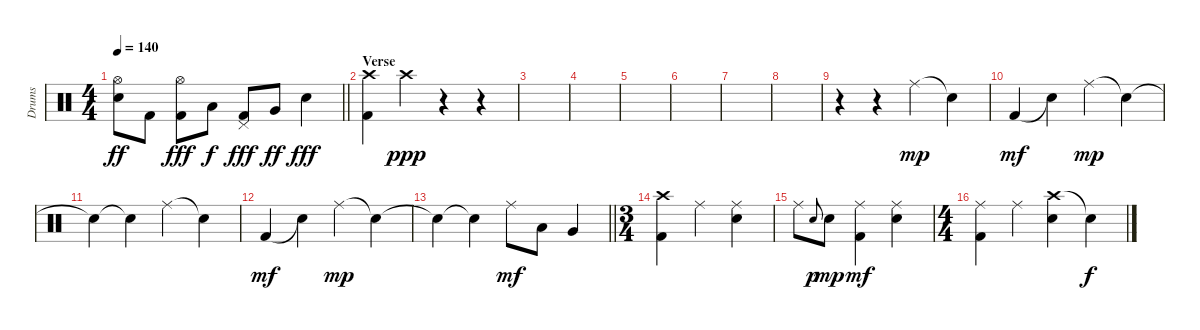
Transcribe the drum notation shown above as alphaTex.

\track ("Drums" "Drums") {instrument percussion}
\staff {score}
\articulation defaults
\ts (4 4)
\tempo 140
\clef neutral
\barLineRight lightlight
\ks c
("Hi-Hat (open)" "Snare (hit) 2").8{dy ff} "Kick (hit) 2".8 ("Hi-Hat (open)" "Kick (hit) 2").8{dy fff} "Low Tom (hit)".8{dy f} ("Pedal Hi-Hat (hit)" "Kick (hit) 2").8{dy fff} "Very Low Tom (hit)".8{dy ff} "Snare (hit) 2".4{dy fff} |
\section ("" "Verse")
("Crash high (hit)" "Kick (hit) 2").4 "Crash high (hit)".4{dy ppp} r.4 r.4 |
|
|
|
|
|
|
r.4 r.4 "Ride (middle)".4{dy mp} "Snare (hit)"{t}.4 |
"Kick (hit) 2".4{dy mf} "Snare (hit)"{t}.4 "Ride (middle)".4{dy mp} "Snare (hit)"{t}.4 |
"Snare (hit)"{t}.4 "Snare (hit)"{t}.4 "Ride (middle)".4 "Snare (hit)"{t}.4 |
"Kick (hit) 2".4{dy mf} "Snare (hit)"{t}.4 "Ride (middle)".4{dy mp} "Snare (hit)"{t}.4 |
\barLineRight lightlight "Snare (hit)"{t}.4 "Snare (hit)"{t}.4 "Ride (middle)".8{dy mf} "Low Tom (hit)".8 "Very Low Tom (hit)".4
|
\ts (3 4)
("Crash high (hit)" "Kick (hit) 2").4 "Ride (middle)".4 ("Ride (middle)" "Snare (hit) 2").4 |
"Ride (middle)".8 "Snare (hit) 2".8{gr onbeat dy p} "Snare (hit) 2".8{dy mp} ("Ride (middle)" "Kick (hit) 2").4{dy mf} ("Ride (middle)" "Snare (hit) 2").4 |
\ts (4 4)
("Ride (middle)" "Kick (hit) 2").4 "Ride (middle)".4 ("Crash high (hit)" "Snare (hit) 2").4 "Snare (hit)"{t}.4{dy f}
